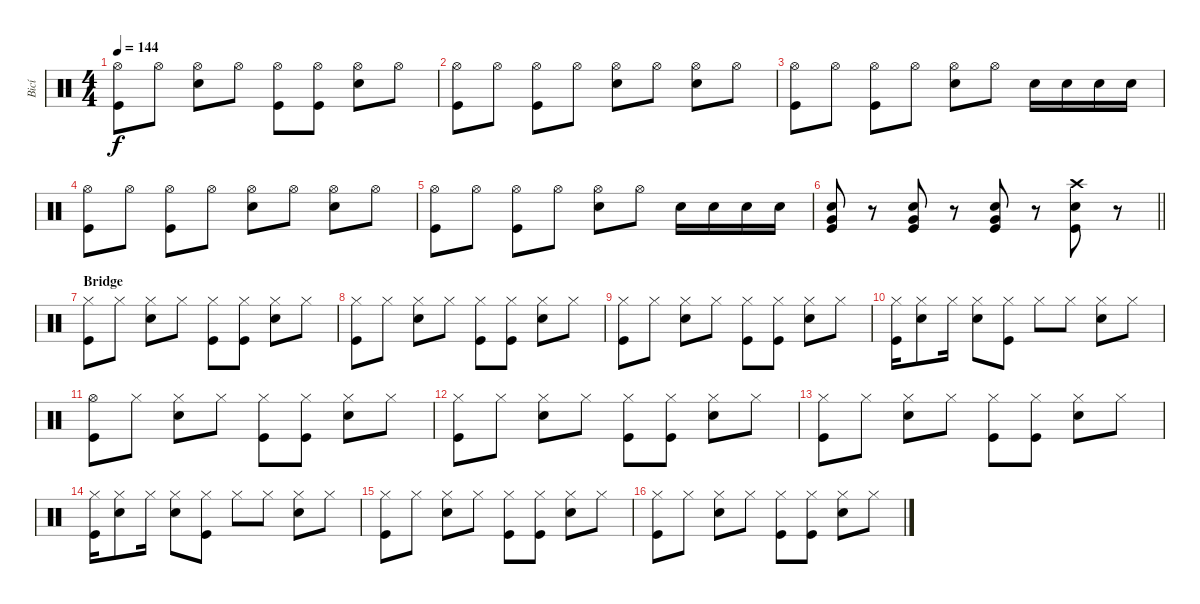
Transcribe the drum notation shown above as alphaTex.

\track ("Bicí" "Bicí") {instrument percussion}
\staff
\articulation defaults
\ts (4 4)
\tempo 144
\clef neutral
\ks c
("Hi-Hat (open)" "Kick (hit)").8{dy f} "Hi-Hat (open)".8 ("Hi-Hat (open)" "Electric Snare (hit)").8 "Hi-Hat (open)".8 ("Hi-Hat (open)" "Kick (hit)").8 ("Hi-Hat (open)" "Kick (hit)").8 ("Hi-Hat (open)" "Electric Snare (hit)").8 "Hi-Hat (open)".8 |
("Hi-Hat (open)" "Kick (hit)").8 "Hi-Hat (open)".8 ("Hi-Hat (open)" "Kick (hit)").8 "Hi-Hat (open)".8 ("Hi-Hat (open)" "Electric Snare (hit)").8 "Hi-Hat (open)".8 ("Hi-Hat (open)" "Electric Snare (hit)").8 "Hi-Hat (open)".8 |
("Hi-Hat (open)" "Kick (hit)").8 "Hi-Hat (open)".8 ("Hi-Hat (open)" "Kick (hit)").8 "Hi-Hat (open)".8 ("Hi-Hat (open)" "Electric Snare (hit)").8 "Hi-Hat (open)".8 "Electric Snare (hit)".16 "Electric Snare (hit)".16 "Electric Snare (hit)".16 "Electric Snare (hit)".16 |
("Hi-Hat (open)" "Kick (hit)").8 "Hi-Hat (open)".8 ("Hi-Hat (open)" "Kick (hit)").8 "Hi-Hat (open)".8 ("Hi-Hat (open)" "Electric Snare (hit)").8 "Hi-Hat (open)".8 ("Hi-Hat (open)" "Electric Snare (hit)").8 "Hi-Hat (open)".8 |
("Hi-Hat (open)" "Kick (hit)").8 "Hi-Hat (open)".8 ("Hi-Hat (open)" "Kick (hit)").8 "Hi-Hat (open)".8 ("Hi-Hat (open)" "Electric Snare (hit)").8 "Hi-Hat (open)".8 "Electric Snare (hit)".16 "Electric Snare (hit)".16 "Electric Snare (hit)".16 "Electric Snare (hit)".16 |
\barLineRight lightlight
("Very Low Tom (hit)" "Electric Snare (hit)" "Kick (hit)").8 r.8 ("Very Low Tom (hit)" "Kick (hit)" "Electric Snare (hit)").8 r.8 ("Very Low Tom (hit)" "Electric Snare (hit)" "Kick (hit)").8 r.8 ("Crash high (hit)" "Electric Snare (hit)" "Kick (hit)").8 r.8 |
\section ("" "Bridge")
("Hi-Hat (closed)" "Kick (hit)").8 "Hi-Hat (closed)".8 ("Hi-Hat (closed)" "Electric Snare (hit)").8 "Hi-Hat (closed)".8 ("Hi-Hat (closed)" "Kick (hit)").8 ("Hi-Hat (closed)" "Kick (hit)").8 ("Hi-Hat (closed)" "Electric Snare (hit)").8 "Hi-Hat (closed)".8 |
("Hi-Hat (closed)" "Kick (hit)").8 "Hi-Hat (closed)".8 ("Hi-Hat (closed)" "Electric Snare (hit)").8 "Hi-Hat (closed)".8 ("Hi-Hat (closed)" "Kick (hit)").8 ("Hi-Hat (closed)" "Kick (hit)").8 ("Hi-Hat (closed)" "Electric Snare (hit)").8 "Hi-Hat (closed)".8 |
("Hi-Hat (closed)" "Kick (hit)").8 "Hi-Hat (closed)".8 ("Hi-Hat (closed)" "Electric Snare (hit)").8 "Hi-Hat (closed)".8 ("Hi-Hat (closed)" "Kick (hit)").8 ("Hi-Hat (closed)" "Kick (hit)").8 ("Hi-Hat (closed)" "Electric Snare (hit)").8 "Hi-Hat (closed)".8 |
("Hi-Hat (closed)" "Kick (hit)").16 ("Hi-Hat (closed)" "Electric Snare (hit)").8 "Hi-Hat (closed)".16 ("Hi-Hat (closed)" "Electric Snare (hit)").8 ("Hi-Hat (closed)" "Kick (hit)").8 "Hi-Hat (closed)".8 "Hi-Hat (closed)".8 ("Hi-Hat (closed)" "Electric Snare (hit)").8 "Hi-Hat (closed)".8 |
("Hi-Hat (open)" "Kick (hit)").8 "Hi-Hat (closed)".8 ("Hi-Hat (closed)" "Electric Snare (hit)").8 "Hi-Hat (closed)".8 ("Hi-Hat (closed)" "Kick (hit)").8 ("Hi-Hat (closed)" "Kick (hit)").8 ("Hi-Hat (closed)" "Electric Snare (hit)").8 "Hi-Hat (closed)".8 |
("Hi-Hat (closed)" "Kick (hit)").8 "Hi-Hat (closed)".8 ("Hi-Hat (closed)" "Electric Snare (hit)").8 "Hi-Hat (closed)".8 ("Hi-Hat (closed)" "Kick (hit)").8 ("Hi-Hat (closed)" "Kick (hit)").8 ("Hi-Hat (closed)" "Electric Snare (hit)").8 "Hi-Hat (closed)".8 |
("Hi-Hat (closed)" "Kick (hit)").8 "Hi-Hat (closed)".8 ("Hi-Hat (closed)" "Electric Snare (hit)").8 "Hi-Hat (closed)".8 ("Hi-Hat (closed)" "Kick (hit)").8 ("Hi-Hat (closed)" "Kick (hit)").8 ("Hi-Hat (closed)" "Electric Snare (hit)").8 "Hi-Hat (closed)".8 |
("Hi-Hat (closed)" "Kick (hit)").16 ("Hi-Hat (closed)" "Electric Snare (hit)").8 "Hi-Hat (closed)".16 ("Hi-Hat (closed)" "Electric Snare (hit)").8 ("Hi-Hat (closed)" "Kick (hit)").8 "Hi-Hat (closed)".8 "Hi-Hat (closed)".8 ("Hi-Hat (closed)" "Electric Snare (hit)").8 "Hi-Hat (closed)".8 |
("Hi-Hat (closed)" "Kick (hit)").8 "Hi-Hat (closed)".8 ("Hi-Hat (closed)" "Electric Snare (hit)").8 "Hi-Hat (closed)".8 ("Hi-Hat (closed)" "Kick (hit)").8 ("Hi-Hat (closed)" "Kick (hit)").8 ("Hi-Hat (closed)" "Electric Snare (hit)").8 "Hi-Hat (closed)".8 |
("Hi-Hat (closed)" "Kick (hit)").8 "Hi-Hat (closed)".8 ("Hi-Hat (closed)" "Electric Snare (hit)").8 "Hi-Hat (closed)".8 ("Hi-Hat (closed)" "Kick (hit)").8 ("Hi-Hat (closed)" "Kick (hit)").8 ("Hi-Hat (closed)" "Electric Snare (hit)").8 "Hi-Hat (closed)".8
